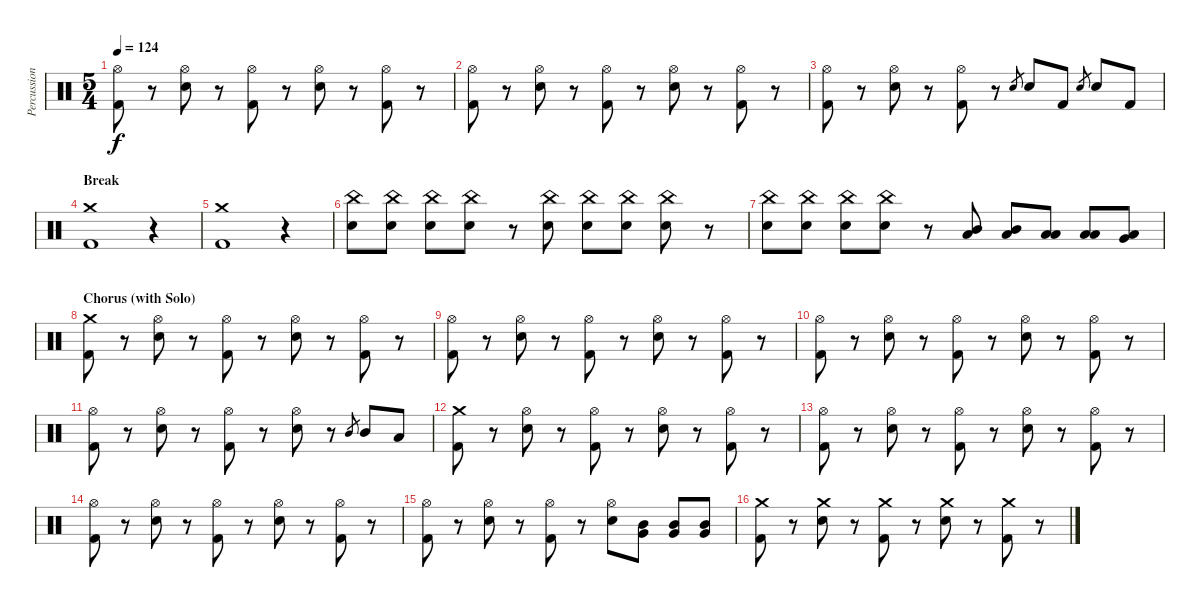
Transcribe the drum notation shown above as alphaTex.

\track ("Percussion" "Percussion") {instrument percussion}
\staff {score}
\articulation defaults
\ts (5 4)
\tempo 124
\clef neutral
\ks c
("Hi-Hat (open)" "Kick (hit) 2").8{dy f} r.8 ("Hi-Hat (open)" "Snare (hit) 2").8 r.8 ("Hi-Hat (open)" "Kick (hit) 2").8 r.8 ("Hi-Hat (open)" "Snare (hit) 2").8 r.8 ("Hi-Hat (open)" "Kick (hit) 2").8 r.8 |
("Hi-Hat (open)" "Kick (hit) 2").8 r.8 ("Hi-Hat (open)" "Snare (hit) 2").8 r.8 ("Hi-Hat (open)" "Kick (hit) 2").8 r.8 ("Hi-Hat (open)" "Snare (hit) 2").8 r.8 ("Hi-Hat (open)" "Kick (hit) 2").8 r.8 |
("Hi-Hat (open)" "Kick (hit) 2").8 r.8 ("Hi-Hat (open)" "Snare (hit) 2").8 r.8 ("Hi-Hat (open)" "Kick (hit) 2").8 r.8 "Snare (hit) 2".8{gr} "Snare (hit) 2".8 "Kick (hit) 2".8 "Snare (hit) 2".8{gr} "Snare (hit) 2".8 "Kick (hit) 2".8 |
\section ("" "Break")
("Crash medium (hit)" "Kick (hit) 2").1 r.4 |
("Crash medium (hit)" "Kick (hit) 2").1 r.4 |
("China (hit)" "Snare (hit) 2").8 ("China (hit)" "Snare (hit) 2").8 ("China (hit)" "Snare (hit) 2").8 ("China (hit)" "Snare (hit) 2").8 r.8 ("China (hit)" "Snare (hit) 2").8 ("China (hit)" "Snare (hit) 2").8 ("China (hit)" "Snare (hit) 2").8 ("China (hit)" "Snare (hit) 2").8 r.8 |
("China (hit)" "Snare (hit) 2").8 ("China (hit)" "Snare (hit) 2").8 ("China (hit)" "Snare (hit) 2").8 ("China (hit)" "Snare (hit) 2").8 r.8 ("Mid Tom (hit)" "Low Floor Tom (hit)").8 ("Mid Tom (hit)" "Low Floor Tom (hit)").8 ("Low Tom (hit)" "Low Floor Tom (hit)").8 ("Low Tom (hit)" "Low Floor Tom (hit)").8 ("Very Low Tom (hit)" "Low Floor Tom (hit)").8 |
\section ("" "Chorus (with Solo)")
("Crash medium (hit)" "Kick (hit) 2").8 r.8 ("Hi-Hat (open)" "Snare (hit) 2").8 r.8 ("Hi-Hat (open)" "Kick (hit) 2").8 r.8 ("Hi-Hat (open)" "Snare (hit) 2").8 r.8 ("Hi-Hat (open)" "Kick (hit) 2").8 r.8 |
("Hi-Hat (open)" "Kick (hit) 2").8 r.8 ("Hi-Hat (open)" "Snare (hit) 2").8 r.8 ("Hi-Hat (open)" "Kick (hit) 2").8 r.8 ("Hi-Hat (open)" "Snare (hit) 2").8 r.8 ("Hi-Hat (open)" "Kick (hit) 2").8 r.8 |
("Hi-Hat (open)" "Kick (hit) 2").8 r.8 ("Hi-Hat (open)" "Snare (hit) 2").8 r.8 ("Hi-Hat (open)" "Kick (hit) 2").8 r.8 ("Hi-Hat (open)" "Snare (hit) 2").8 r.8 ("Hi-Hat (open)" "Kick (hit) 2").8 r.8 |
("Hi-Hat (open)" "Kick (hit) 2").8 r.8 ("Hi-Hat (open)" "Snare (hit) 2").8 r.8 ("Hi-Hat (open)" "Kick (hit) 2").8 r.8 ("Hi-Hat (open)" "Snare (hit) 2").8 r.8 "Mid Tom (hit)".8{gr} "Mid Tom (hit)".8 "Low Tom (hit)".8 |
("Crash medium (hit)" "Kick (hit) 2").8 r.8 ("Hi-Hat (open)" "Snare (hit) 2").8 r.8 ("Hi-Hat (open)" "Kick (hit) 2").8 r.8 ("Hi-Hat (open)" "Snare (hit) 2").8 r.8 ("Hi-Hat (open)" "Kick (hit) 2").8 r.8 |
("Hi-Hat (open)" "Kick (hit) 2").8 r.8 ("Hi-Hat (open)" "Snare (hit) 2").8 r.8 ("Hi-Hat (open)" "Kick (hit) 2").8 r.8 ("Hi-Hat (open)" "Snare (hit) 2").8 r.8 ("Hi-Hat (open)" "Kick (hit) 2").8 r.8 |
("Hi-Hat (open)" "Kick (hit) 2").8 r.8 ("Hi-Hat (open)" "Snare (hit) 2").8 r.8 ("Hi-Hat (open)" "Kick (hit) 2").8 r.8 ("Hi-Hat (open)" "Snare (hit) 2").8 r.8 ("Hi-Hat (open)" "Kick (hit) 2").8 r.8 |
("Hi-Hat (open)" "Kick (hit) 2").8 r.8 ("Hi-Hat (open)" "Snare (hit) 2").8 r.8 ("Hi-Hat (open)" "Kick (hit) 2").8 r.8 ("Hi-Hat (open)" "Snare (hit) 2").8 ("Mid Tom (hit)" "Very Low Tom (hit)").8 ("Mid Tom (hit)" "Very Low Tom (hit)").8 ("Mid Tom (hit)" "Very Low Tom (hit)").8 |
("Crash medium (hit)" "Kick (hit) 2").8 r.8 ("Crash medium (hit)" "Snare (hit) 2").8 r.8 ("Crash medium (hit)" "Kick (hit) 2").8 r.8 ("Crash medium (hit)" "Snare (hit) 2").8 r.8 ("Crash medium (hit)" "Kick (hit) 2").8 r.8
